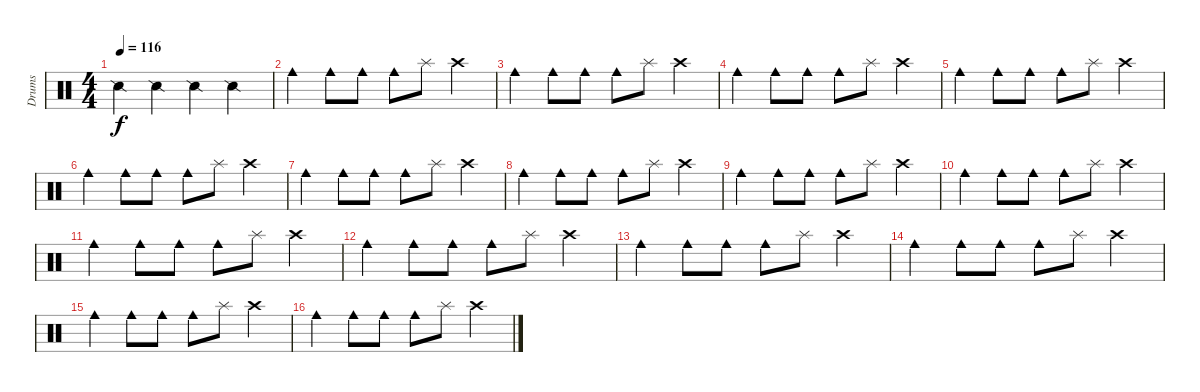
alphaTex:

\track ("Drums" "Drums") {instrument percussion}
\staff {score}
\articulation defaults
\ts (4 4)
\tempo 116
\clef neutral
\ks c "Snare (side stick) 2".4{dy f} "Snare (side stick) 2".4 "Snare (side stick) 2".4 "Snare (side stick) 2".4
|
"Cowbell medium (hit)".4 "Cowbell medium (hit)".8 "Cowbell medium (hit)".8 "Cowbell medium (hit)".8 "Splash (hit)".8 "Crash high (hit)".4 |
"Cowbell medium (hit)".4 "Cowbell medium (hit)".8 "Cowbell medium (hit)".8 "Cowbell medium (hit)".8 "Splash (hit)".8 "Crash high (hit)".4 |
"Cowbell medium (hit)".4 "Cowbell medium (hit)".8 "Cowbell medium (hit)".8 "Cowbell medium (hit)".8 "Splash (hit)".8 "Crash high (hit)".4 |
"Cowbell medium (hit)".4 "Cowbell medium (hit)".8 "Cowbell medium (hit)".8 "Cowbell medium (hit)".8 "Splash (hit)".8 "Crash high (hit)".4 |
"Cowbell medium (hit)".4 "Cowbell medium (hit)".8 "Cowbell medium (hit)".8 "Cowbell medium (hit)".8 "Splash (hit)".8 "Crash high (hit)".4 |
"Cowbell medium (hit)".4 "Cowbell medium (hit)".8 "Cowbell medium (hit)".8 "Cowbell medium (hit)".8 "Splash (hit)".8 "Crash high (hit)".4 |
"Cowbell medium (hit)".4 "Cowbell medium (hit)".8 "Cowbell medium (hit)".8 "Cowbell medium (hit)".8 "Splash (hit)".8 "Crash high (hit)".4 |
"Cowbell medium (hit)".4 "Cowbell medium (hit)".8 "Cowbell medium (hit)".8 "Cowbell medium (hit)".8 "Splash (hit)".8 "Crash high (hit)".4 |
"Cowbell medium (hit)".4 "Cowbell medium (hit)".8 "Cowbell medium (hit)".8 "Cowbell medium (hit)".8 "Splash (hit)".8 "Crash high (hit)".4 |
"Cowbell medium (hit)".4 "Cowbell medium (hit)".8 "Cowbell medium (hit)".8 "Cowbell medium (hit)".8 "Splash (hit)".8 "Crash high (hit)".4 |
"Cowbell medium (hit)".4 "Cowbell medium (hit)".8 "Cowbell medium (hit)".8 "Cowbell medium (hit)".8 "Splash (hit)".8 "Crash high (hit)".4 |
"Cowbell medium (hit)".4 "Cowbell medium (hit)".8 "Cowbell medium (hit)".8 "Cowbell medium (hit)".8 "Splash (hit)".8 "Crash high (hit)".4 |
"Cowbell medium (hit)".4 "Cowbell medium (hit)".8 "Cowbell medium (hit)".8 "Cowbell medium (hit)".8 "Splash (hit)".8 "Crash high (hit)".4 |
"Cowbell medium (hit)".4 "Cowbell medium (hit)".8 "Cowbell medium (hit)".8 "Cowbell medium (hit)".8 "Splash (hit)".8 "Crash high (hit)".4 |
"Cowbell medium (hit)".4 "Cowbell medium (hit)".8 "Cowbell medium (hit)".8 "Cowbell medium (hit)".8 "Splash (hit)".8 "Crash high (hit)".4
